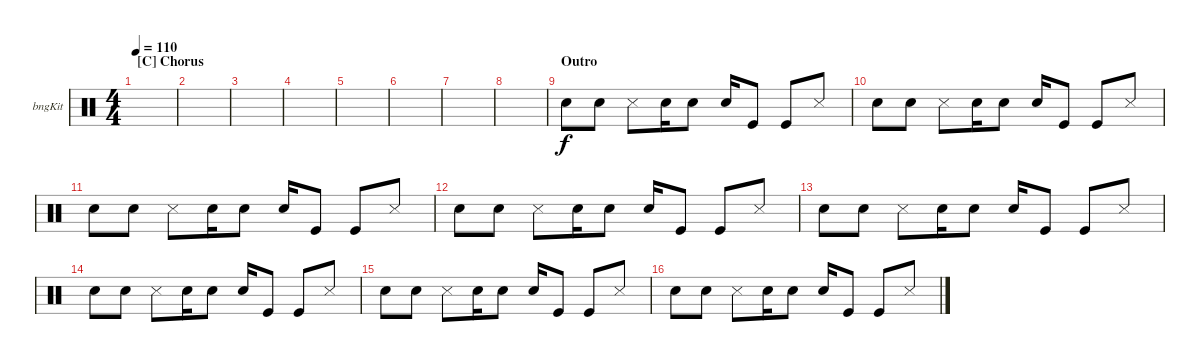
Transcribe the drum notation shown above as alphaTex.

\defaultSystemsLayout 4
\bracketExtendMode groupsimilarinstruments
\firstSystemTrackNameOrientation horizontal
\otherSystemsTrackNameOrientation horizontal
\track ("Bongos" "bngKit") {instrument percussion}
\staff {score}
\articulation defaults
\ts (4 4)
\section ("C" "Chorus ")
\tempo 110
\clef neutral
\ks c
|
|
|
|
|
|
|
|
\section ("" "Outro")
"Snare (hit) 2".8 "Snare (hit) 2".8 "Snare (side stick) 3".8 "Snare (hit) 2".16 "Snare (hit) 2".8 "Snare (hit) 2".16 "Kick (hit)".8 "Kick (hit)".8 "Snare (side stick) 3".8 |
"Snare (hit) 2".8 "Snare (hit) 2".8 "Snare (side stick) 3".8 "Snare (hit) 2".16 "Snare (hit) 2".8 "Snare (hit) 2".16 "Kick (hit)".8 "Kick (hit)".8 "Snare (side stick) 3".8 |
"Snare (hit) 2".8 "Snare (hit) 2".8 "Snare (side stick) 3".8 "Snare (hit) 2".16 "Snare (hit) 2".8 "Snare (hit) 2".16 "Kick (hit)".8 "Kick (hit)".8 "Snare (side stick) 3".8 |
"Snare (hit) 2".8 "Snare (hit) 2".8 "Snare (side stick) 3".8 "Snare (hit) 2".16 "Snare (hit) 2".8 "Snare (hit) 2".16 "Kick (hit)".8 "Kick (hit)".8 "Snare (side stick) 3".8 |
"Snare (hit) 2".8 "Snare (hit) 2".8 "Snare (side stick) 3".8 "Snare (hit) 2".16 "Snare (hit) 2".8 "Snare (hit) 2".16 "Kick (hit)".8 "Kick (hit)".8 "Snare (side stick) 3".8 |
"Snare (hit) 2".8 "Snare (hit) 2".8 "Snare (side stick) 3".8 "Snare (hit) 2".16 "Snare (hit) 2".8 "Snare (hit) 2".16 "Kick (hit)".8 "Kick (hit)".8 "Snare (side stick) 3".8 |
"Snare (hit) 2".8 "Snare (hit) 2".8 "Snare (side stick) 3".8 "Snare (hit) 2".16 "Snare (hit) 2".8 "Snare (hit) 2".16 "Kick (hit)".8 "Kick (hit)".8 "Snare (side stick) 3".8 |
"Snare (hit) 2".8 "Snare (hit) 2".8 "Snare (side stick) 3".8 "Snare (hit) 2".16 "Snare (hit) 2".8 "Snare (hit) 2".16 "Kick (hit)".8 "Kick (hit)".8 "Snare (side stick) 3".8
